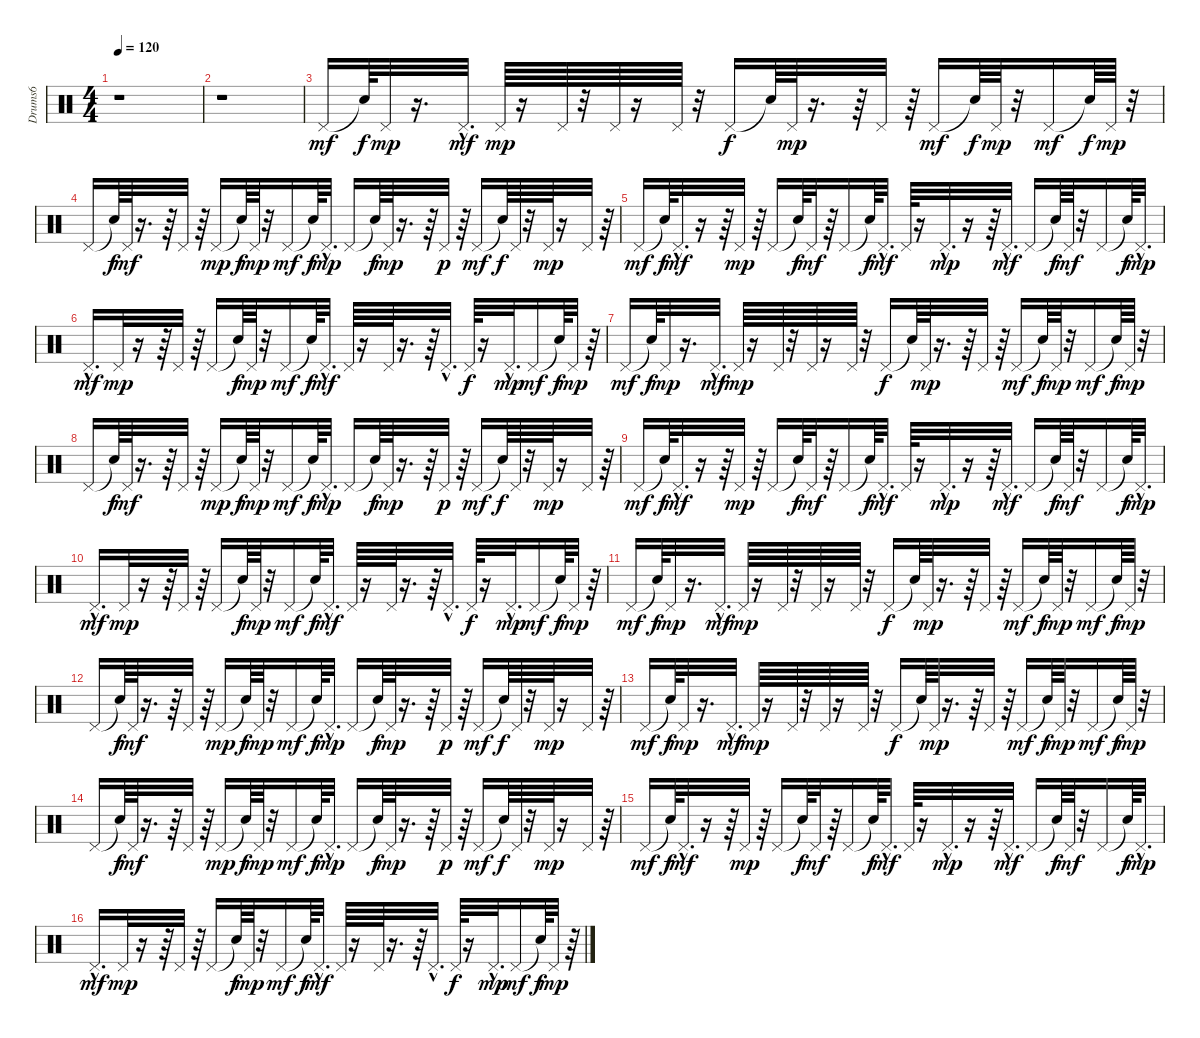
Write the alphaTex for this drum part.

\track ("Drums6" "Drums6") {instrument percussion}
\staff {score}
\articulation defaults
\ts (4 4)
\tempo 120
\clef neutral
\ks c
r.1{dy mf} |
r.1 |
"Pedal Hi-Hat (hit)".16 "Snare (hit)"{t}.64{dy f} "Pedal Hi-Hat (hit)".32{dy mp} r.16{d} "Pedal Hi-Hat (hit)"{hac}.32{d dy mf} "Pedal Hi-Hat (hit)".64{dy mp} r.16 "Pedal Hi-Hat (hit)".64 r.32 "Pedal Hi-Hat (hit)".64 r.16 "Pedal Hi-Hat (hit)".64 r.32 "Pedal Hi-Hat (hit)".16{dy f} "Snare (hit)"{t}.64 "Pedal Hi-Hat (hit)".64{dy mp} r.16{d} r.64 "Pedal Hi-Hat (hit)".32 r.64 "Pedal Hi-Hat (hit)".16{dy mf} "Snare (hit)"{t}.64{dy f} "Pedal Hi-Hat (hit)".64{dy mp} r.32 "Pedal Hi-Hat (hit)".16{dy mf} "Snare (hit)"{t}.64{dy f} "Pedal Hi-Hat (hit)".64{dy mp} r.32 |
"Pedal Hi-Hat (hit)".16 "Snare (hit)"{t}.64{dy f} "Pedal Hi-Hat (hit)".64{dy mf} r.16{d} r.64 "Pedal Hi-Hat (hit)".32 r.64 "Pedal Hi-Hat (hit)".16{dy mp} "Snare (hit)"{t}.64{dy f} "Pedal Hi-Hat (hit)".64{dy mp} r.32 "Pedal Hi-Hat (hit)".16{dy mf} "Snare (hit)"{t}.64{dy f} "Pedal Hi-Hat (hit)"{hac}.32{d dy mp} "Pedal Hi-Hat (hit)".16 "Snare (hit)"{t}.64{dy f} "Pedal Hi-Hat (hit)".64{dy mp} r.16{d} r.64 "Pedal Hi-Hat (hit)".32{dy p} r.64 "Pedal Hi-Hat (hit)".16{dy mf} "Snare (hit)"{t}.64{dy f} "Pedal Hi-Hat (hit)".64 r.32 "Pedal Hi-Hat (hit)".64{dy mp} r.16 "Pedal Hi-Hat (hit)".32 r.64 |
"Pedal Hi-Hat (hit)".16{dy mf} "Snare (hit)"{t}.64{dy f} "Pedal Hi-Hat (hit)"{hac}.32{d dy mf} r.16 r.64 "Pedal Hi-Hat (hit)".32{dy mp} r.64 "Pedal Hi-Hat (hit)".16 "Snare (hit)"{t}.64{dy f} "Pedal Hi-Hat (hit)".32{dy mf} r.64 "Pedal Hi-Hat (hit)".16 "Snare (hit)"{t}.64{dy f} "Pedal Hi-Hat (hit)"{hac}.32{d dy mf} "Pedal Hi-Hat (hit)".64 r.16 "Pedal Hi-Hat (hit)"{hac}.32{d dy mp} r.16 r.64 "Pedal Hi-Hat (hit)"{hac}.32{d dy mf} "Pedal Hi-Hat (hit)".16 "Snare (hit)"{t}.64{dy f} "Pedal Hi-Hat (hit)".64{dy mf} r.32 "Pedal Hi-Hat (hit)".16 "Snare (hit)"{t}.64{dy f} "Pedal Hi-Hat (hit)"{hac}.32{d dy mp} |
"Pedal Hi-Hat (hit)"{hac}.16{d dy mf} "Pedal Hi-Hat (hit)".32{dy mp} r.16 r.64 "Pedal Hi-Hat (hit)".32 r.64 "Pedal Hi-Hat (hit)".16 "Snare (hit)"{t}.64{dy f} "Pedal Hi-Hat (hit)".64{dy mp} r.32 "Pedal Hi-Hat (hit)".16{dy mf} "Snare (hit)"{t}.64{dy f} "Pedal Hi-Hat (hit)"{hac}.32{d dy mf} "Pedal Hi-Hat (hit)".64 r.16 "Pedal Hi-Hat (hit)".64 r.16{d} r.64 "Pedal Hi-Hat (hit)"{hac}.32{d} "Pedal Hi-Hat (hit)".64{dy f} r.16 "Pedal Hi-Hat (hit)"{hac}.32{d dy mp} "Pedal Hi-Hat (hit)".16{dy mf} "Snare (hit)"{t}.64{dy f} "Pedal Hi-Hat (hit)".32{dy mp} r.64 |
"Pedal Hi-Hat (hit)".16{dy mf} "Snare (hit)"{t}.64{dy f} "Pedal Hi-Hat (hit)".32{dy mp} r.16{d} "Pedal Hi-Hat (hit)"{hac}.32{d dy mf} "Pedal Hi-Hat (hit)".64{dy mp} r.16 "Pedal Hi-Hat (hit)".64 r.32 "Pedal Hi-Hat (hit)".64 r.16 "Pedal Hi-Hat (hit)".64 r.32 "Pedal Hi-Hat (hit)".16{dy f} "Snare (hit)"{t}.64 "Pedal Hi-Hat (hit)".64{dy mp} r.16{d} r.64 "Pedal Hi-Hat (hit)".32 r.64 "Pedal Hi-Hat (hit)".16{dy mf} "Snare (hit)"{t}.64{dy f} "Pedal Hi-Hat (hit)".64{dy mp} r.32 "Pedal Hi-Hat (hit)".16{dy mf} "Snare (hit)"{t}.64{dy f} "Pedal Hi-Hat (hit)".64{dy mp} r.32 |
"Pedal Hi-Hat (hit)".16 "Snare (hit)"{t}.64{dy f} "Pedal Hi-Hat (hit)".64{dy mf} r.16{d} r.64 "Pedal Hi-Hat (hit)".32 r.64 "Pedal Hi-Hat (hit)".16{dy mp} "Snare (hit)"{t}.64{dy f} "Pedal Hi-Hat (hit)".64{dy mp} r.32 "Pedal Hi-Hat (hit)".16{dy mf} "Snare (hit)"{t}.64{dy f} "Pedal Hi-Hat (hit)"{hac}.32{d dy mp} "Pedal Hi-Hat (hit)".16 "Snare (hit)"{t}.64{dy f} "Pedal Hi-Hat (hit)".64{dy mp} r.16{d} r.64 "Pedal Hi-Hat (hit)".32{dy p} r.64 "Pedal Hi-Hat (hit)".16{dy mf} "Snare (hit)"{t}.64{dy f} "Pedal Hi-Hat (hit)".64 r.32 "Pedal Hi-Hat (hit)".64{dy mp} r.16 "Pedal Hi-Hat (hit)".32 r.64 |
"Pedal Hi-Hat (hit)".16{dy mf} "Snare (hit)"{t}.64{dy f} "Pedal Hi-Hat (hit)"{hac}.32{d dy mf} r.16 r.64 "Pedal Hi-Hat (hit)".32{dy mp} r.64 "Pedal Hi-Hat (hit)".16 "Snare (hit)"{t}.64{dy f} "Pedal Hi-Hat (hit)".32{dy mf} r.64 "Pedal Hi-Hat (hit)".16 "Snare (hit)"{t}.64{dy f} "Pedal Hi-Hat (hit)"{hac}.32{d dy mf} "Pedal Hi-Hat (hit)".64 r.16 "Pedal Hi-Hat (hit)"{hac}.32{d dy mp} r.16 r.64 "Pedal Hi-Hat (hit)"{hac}.32{d dy mf} "Pedal Hi-Hat (hit)".16 "Snare (hit)"{t}.64{dy f} "Pedal Hi-Hat (hit)".64{dy mf} r.32 "Pedal Hi-Hat (hit)".16 "Snare (hit)"{t}.64{dy f} "Pedal Hi-Hat (hit)"{hac}.32{d dy mp} |
"Pedal Hi-Hat (hit)"{hac}.16{d dy mf} "Pedal Hi-Hat (hit)".32{dy mp} r.16 r.64 "Pedal Hi-Hat (hit)".32 r.64 "Pedal Hi-Hat (hit)".16 "Snare (hit)"{t}.64{dy f} "Pedal Hi-Hat (hit)".64{dy mp} r.32 "Pedal Hi-Hat (hit)".16{dy mf} "Snare (hit)"{t}.64{dy f} "Pedal Hi-Hat (hit)"{hac}.32{d dy mf} "Pedal Hi-Hat (hit)".64 r.16 "Pedal Hi-Hat (hit)".64 r.16{d} r.64 "Pedal Hi-Hat (hit)"{hac}.32{d} "Pedal Hi-Hat (hit)".64{dy f} r.16 "Pedal Hi-Hat (hit)"{hac}.32{d dy mp} "Pedal Hi-Hat (hit)".16{dy mf} "Snare (hit)"{t}.64{dy f} "Pedal Hi-Hat (hit)".32{dy mp} r.64 |
"Pedal Hi-Hat (hit)".16{dy mf} "Snare (hit)"{t}.64{dy f} "Pedal Hi-Hat (hit)".32{dy mp} r.16{d} "Pedal Hi-Hat (hit)"{hac}.32{d dy mf} "Pedal Hi-Hat (hit)".64{dy mp} r.16 "Pedal Hi-Hat (hit)".64 r.32 "Pedal Hi-Hat (hit)".64 r.16 "Pedal Hi-Hat (hit)".64 r.32 "Pedal Hi-Hat (hit)".16{dy f} "Snare (hit)"{t}.64 "Pedal Hi-Hat (hit)".64{dy mp} r.16{d} r.64 "Pedal Hi-Hat (hit)".32 r.64 "Pedal Hi-Hat (hit)".16{dy mf} "Snare (hit)"{t}.64{dy f} "Pedal Hi-Hat (hit)".64{dy mp} r.32 "Pedal Hi-Hat (hit)".16{dy mf} "Snare (hit)"{t}.64{dy f} "Pedal Hi-Hat (hit)".64{dy mp} r.32 |
"Pedal Hi-Hat (hit)".16 "Snare (hit)"{t}.64{dy f} "Pedal Hi-Hat (hit)".64{dy mf} r.16{d} r.64 "Pedal Hi-Hat (hit)".32 r.64 "Pedal Hi-Hat (hit)".16{dy mp} "Snare (hit)"{t}.64{dy f} "Pedal Hi-Hat (hit)".64{dy mp} r.32 "Pedal Hi-Hat (hit)".16{dy mf} "Snare (hit)"{t}.64{dy f} "Pedal Hi-Hat (hit)"{hac}.32{d dy mp} "Pedal Hi-Hat (hit)".16 "Snare (hit)"{t}.64{dy f} "Pedal Hi-Hat (hit)".64{dy mp} r.16{d} r.64 "Pedal Hi-Hat (hit)".32{dy p} r.64 "Pedal Hi-Hat (hit)".16{dy mf} "Snare (hit)"{t}.64{dy f} "Pedal Hi-Hat (hit)".64 r.32 "Pedal Hi-Hat (hit)".64{dy mp} r.16 "Pedal Hi-Hat (hit)".32 r.64 |
"Pedal Hi-Hat (hit)".16{dy mf} "Snare (hit)"{t}.64{dy f} "Pedal Hi-Hat (hit)".32{dy mp} r.16{d} "Pedal Hi-Hat (hit)"{hac}.32{d dy mf} "Pedal Hi-Hat (hit)".64{dy mp} r.16 "Pedal Hi-Hat (hit)".64 r.32 "Pedal Hi-Hat (hit)".64 r.16 "Pedal Hi-Hat (hit)".64 r.32 "Pedal Hi-Hat (hit)".16{dy f} "Snare (hit)"{t}.64 "Pedal Hi-Hat (hit)".64{dy mp} r.16{d} r.64 "Pedal Hi-Hat (hit)".32 r.64 "Pedal Hi-Hat (hit)".16{dy mf} "Snare (hit)"{t}.64{dy f} "Pedal Hi-Hat (hit)".64{dy mp} r.32 "Pedal Hi-Hat (hit)".16{dy mf} "Snare (hit)"{t}.64{dy f} "Pedal Hi-Hat (hit)".64{dy mp} r.32 |
"Pedal Hi-Hat (hit)".16 "Snare (hit)"{t}.64{dy f} "Pedal Hi-Hat (hit)".64{dy mf} r.16{d} r.64 "Pedal Hi-Hat (hit)".32 r.64 "Pedal Hi-Hat (hit)".16{dy mp} "Snare (hit)"{t}.64{dy f} "Pedal Hi-Hat (hit)".64{dy mp} r.32 "Pedal Hi-Hat (hit)".16{dy mf} "Snare (hit)"{t}.64{dy f} "Pedal Hi-Hat (hit)"{hac}.32{d dy mp} "Pedal Hi-Hat (hit)".16 "Snare (hit)"{t}.64{dy f} "Pedal Hi-Hat (hit)".64{dy mp} r.16{d} r.64 "Pedal Hi-Hat (hit)".32{dy p} r.64 "Pedal Hi-Hat (hit)".16{dy mf} "Snare (hit)"{t}.64{dy f} "Pedal Hi-Hat (hit)".64 r.32 "Pedal Hi-Hat (hit)".64{dy mp} r.16 "Pedal Hi-Hat (hit)".32 r.64 |
"Pedal Hi-Hat (hit)".16{dy mf} "Snare (hit)"{t}.64{dy f} "Pedal Hi-Hat (hit)"{hac}.32{d dy mf} r.16 r.64 "Pedal Hi-Hat (hit)".32{dy mp} r.64 "Pedal Hi-Hat (hit)".16 "Snare (hit)"{t}.64{dy f} "Pedal Hi-Hat (hit)".32{dy mf} r.64 "Pedal Hi-Hat (hit)".16 "Snare (hit)"{t}.64{dy f} "Pedal Hi-Hat (hit)"{hac}.32{d dy mf} "Pedal Hi-Hat (hit)".64 r.16 "Pedal Hi-Hat (hit)"{hac}.32{d dy mp} r.16 r.64 "Pedal Hi-Hat (hit)"{hac}.32{d dy mf} "Pedal Hi-Hat (hit)".16 "Snare (hit)"{t}.64{dy f} "Pedal Hi-Hat (hit)".64{dy mf} r.32 "Pedal Hi-Hat (hit)".16 "Snare (hit)"{t}.64{dy f} "Pedal Hi-Hat (hit)"{hac}.32{d dy mp} |
"Pedal Hi-Hat (hit)"{hac}.16{d dy mf} "Pedal Hi-Hat (hit)".32{dy mp} r.16 r.64 "Pedal Hi-Hat (hit)".32 r.64 "Pedal Hi-Hat (hit)".16 "Snare (hit)"{t}.64{dy f} "Pedal Hi-Hat (hit)".64{dy mp} r.32 "Pedal Hi-Hat (hit)".16{dy mf} "Snare (hit)"{t}.64{dy f} "Pedal Hi-Hat (hit)"{hac}.32{d dy mf} "Pedal Hi-Hat (hit)".64 r.16 "Pedal Hi-Hat (hit)".64 r.16{d} r.64 "Pedal Hi-Hat (hit)"{hac}.32{d} "Pedal Hi-Hat (hit)".64{dy f} r.16 "Pedal Hi-Hat (hit)"{hac}.32{d dy mp} "Pedal Hi-Hat (hit)".16{dy mf} "Snare (hit)"{t}.64{dy f} "Pedal Hi-Hat (hit)".32{dy mp} r.64
